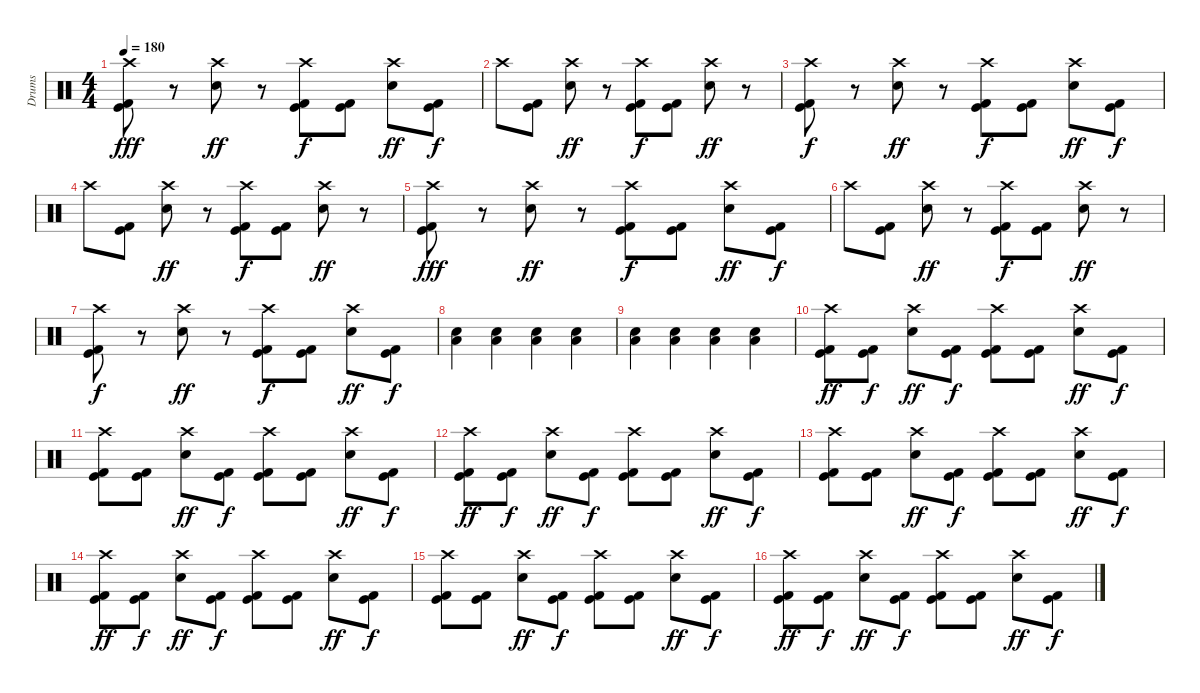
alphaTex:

\track ("Drums" "Drums") {instrument percussion}
\staff {score}
\articulation defaults
\ts (4 4)
\tempo 180
\clef neutral
\ks c
("Crash high (hit)" "Kick (hit)" "Kick (hit) 2").8{dy fff} r.8 ("Crash high (hit)" "Snare (hit) 2").8{dy ff} r.8 ("Crash high (hit)" "Kick (hit)" "Kick (hit) 2").8{dy f} ("Kick (hit)" "Kick (hit) 2").8 ("Crash high (hit)" "Snare (hit) 2").8{dy ff} ("Kick (hit)" "Kick (hit) 2").8{dy f} |
"Crash high (hit)".8 ("Kick (hit)" "Kick (hit) 2").8 ("Crash high (hit)" "Snare (hit) 2").8{dy ff} r.8 ("Crash high (hit)" "Kick (hit)" "Kick (hit) 2").8{dy f} ("Kick (hit)" "Kick (hit) 2").8 ("Crash high (hit)" "Snare (hit) 2").8{dy ff} r.8 |
("Crash high (hit)" "Kick (hit)" "Kick (hit) 2").8{dy f} r.8 ("Crash high (hit)" "Snare (hit) 2").8{dy ff} r.8 ("Crash high (hit)" "Kick (hit)" "Kick (hit) 2").8{dy f} ("Kick (hit)" "Kick (hit) 2").8 ("Crash high (hit)" "Snare (hit) 2").8{dy ff} ("Kick (hit)" "Kick (hit) 2").8{dy f} |
"Crash high (hit)".8 ("Kick (hit)" "Kick (hit) 2").8 ("Crash high (hit)" "Snare (hit) 2").8{dy ff} r.8 ("Crash high (hit)" "Kick (hit)" "Kick (hit) 2").8{dy f} ("Kick (hit)" "Kick (hit) 2").8 ("Crash high (hit)" "Snare (hit) 2").8{dy ff} r.8 |
("Crash high (hit)" "Kick (hit)" "Kick (hit) 2").8{dy fff} r.8 ("Crash high (hit)" "Snare (hit) 2").8{dy ff} r.8 ("Crash high (hit)" "Kick (hit)" "Kick (hit) 2").8{dy f} ("Kick (hit)" "Kick (hit) 2").8 ("Crash high (hit)" "Snare (hit) 2").8{dy ff} ("Kick (hit)" "Kick (hit) 2").8{dy f} |
"Crash high (hit)".8 ("Kick (hit)" "Kick (hit) 2").8 ("Crash high (hit)" "Snare (hit) 2").8{dy ff} r.8 ("Crash high (hit)" "Kick (hit)" "Kick (hit) 2").8{dy f} ("Kick (hit)" "Kick (hit) 2").8 ("Crash high (hit)" "Snare (hit) 2").8{dy ff} r.8 |
("Crash high (hit)" "Kick (hit)" "Kick (hit) 2").8{dy f} r.8 ("Crash high (hit)" "Snare (hit) 2").8{dy ff} r.8 ("Crash high (hit)" "Kick (hit)" "Kick (hit) 2").8{dy f} ("Kick (hit)" "Kick (hit) 2").8 ("Crash high (hit)" "Snare (hit) 2").8{dy ff} ("Kick (hit)" "Kick (hit) 2").8{dy f} |
("Snare (hit) 2" "Low Tom (hit)").4 ("Snare (hit) 2" "Low Tom (hit)").4 ("Snare (hit) 2" "Low Tom (hit)").4 ("Snare (hit) 2" "Low Tom (hit)").4 |
("Snare (hit) 2" "Low Tom (hit)").4 ("Snare (hit) 2" "Low Tom (hit)").4 ("Snare (hit) 2" "Low Tom (hit)").4 ("Snare (hit) 2" "Low Tom (hit)").4 |
("Crash high (hit)" "Kick (hit)" "Kick (hit) 2").8{dy ff} ("Kick (hit)" "Kick (hit) 2").8{dy f} ("Crash high (hit)" "Snare (hit) 2").8{dy ff} ("Kick (hit)" "Kick (hit) 2").8{dy f} ("Crash high (hit)" "Kick (hit)" "Kick (hit) 2").8 ("Kick (hit)" "Kick (hit) 2").8 ("Crash high (hit)" "Snare (hit) 2").8{dy ff} ("Kick (hit)" "Kick (hit) 2").8{dy f} |
("Crash high (hit)" "Kick (hit)" "Kick (hit) 2").8 ("Kick (hit)" "Kick (hit) 2").8 ("Crash high (hit)" "Snare (hit) 2").8{dy ff} ("Kick (hit)" "Kick (hit) 2").8{dy f} ("Crash high (hit)" "Kick (hit)" "Kick (hit) 2").8 ("Kick (hit)" "Kick (hit) 2").8 ("Crash high (hit)" "Snare (hit) 2").8{dy ff} ("Kick (hit)" "Kick (hit) 2").8{dy f} |
("Crash high (hit)" "Kick (hit)" "Kick (hit) 2").8{dy ff} ("Kick (hit)" "Kick (hit) 2").8{dy f} ("Crash high (hit)" "Snare (hit) 2").8{dy ff} ("Kick (hit)" "Kick (hit) 2").8{dy f} ("Crash high (hit)" "Kick (hit)" "Kick (hit) 2").8 ("Kick (hit)" "Kick (hit) 2").8 ("Crash high (hit)" "Snare (hit) 2").8{dy ff} ("Kick (hit)" "Kick (hit) 2").8{dy f} |
("Crash high (hit)" "Kick (hit)" "Kick (hit) 2").8 ("Kick (hit)" "Kick (hit) 2").8 ("Crash high (hit)" "Snare (hit) 2").8{dy ff} ("Kick (hit)" "Kick (hit) 2").8{dy f} ("Crash high (hit)" "Kick (hit)" "Kick (hit) 2").8 ("Kick (hit)" "Kick (hit) 2").8 ("Crash high (hit)" "Snare (hit) 2").8{dy ff} ("Kick (hit)" "Kick (hit) 2").8{dy f} |
("Crash high (hit)" "Kick (hit)" "Kick (hit) 2").8{dy ff} ("Kick (hit)" "Kick (hit) 2").8{dy f} ("Crash high (hit)" "Snare (hit) 2").8{dy ff} ("Kick (hit)" "Kick (hit) 2").8{dy f} ("Crash high (hit)" "Kick (hit)" "Kick (hit) 2").8 ("Kick (hit)" "Kick (hit) 2").8 ("Crash high (hit)" "Snare (hit) 2").8{dy ff} ("Kick (hit)" "Kick (hit) 2").8{dy f} |
("Crash high (hit)" "Kick (hit)" "Kick (hit) 2").8 ("Kick (hit)" "Kick (hit) 2").8 ("Crash high (hit)" "Snare (hit) 2").8{dy ff} ("Kick (hit)" "Kick (hit) 2").8{dy f} ("Crash high (hit)" "Kick (hit)" "Kick (hit) 2").8 ("Kick (hit)" "Kick (hit) 2").8 ("Crash high (hit)" "Snare (hit) 2").8{dy ff} ("Kick (hit)" "Kick (hit) 2").8{dy f} |
("Crash high (hit)" "Kick (hit)" "Kick (hit) 2").8{dy ff} ("Kick (hit)" "Kick (hit) 2").8{dy f} ("Crash high (hit)" "Snare (hit) 2").8{dy ff} ("Kick (hit)" "Kick (hit) 2").8{dy f} ("Crash high (hit)" "Kick (hit)" "Kick (hit) 2").8 ("Kick (hit)" "Kick (hit) 2").8 ("Crash high (hit)" "Snare (hit) 2").8{dy ff} ("Kick (hit)" "Kick (hit) 2").8{dy f}
